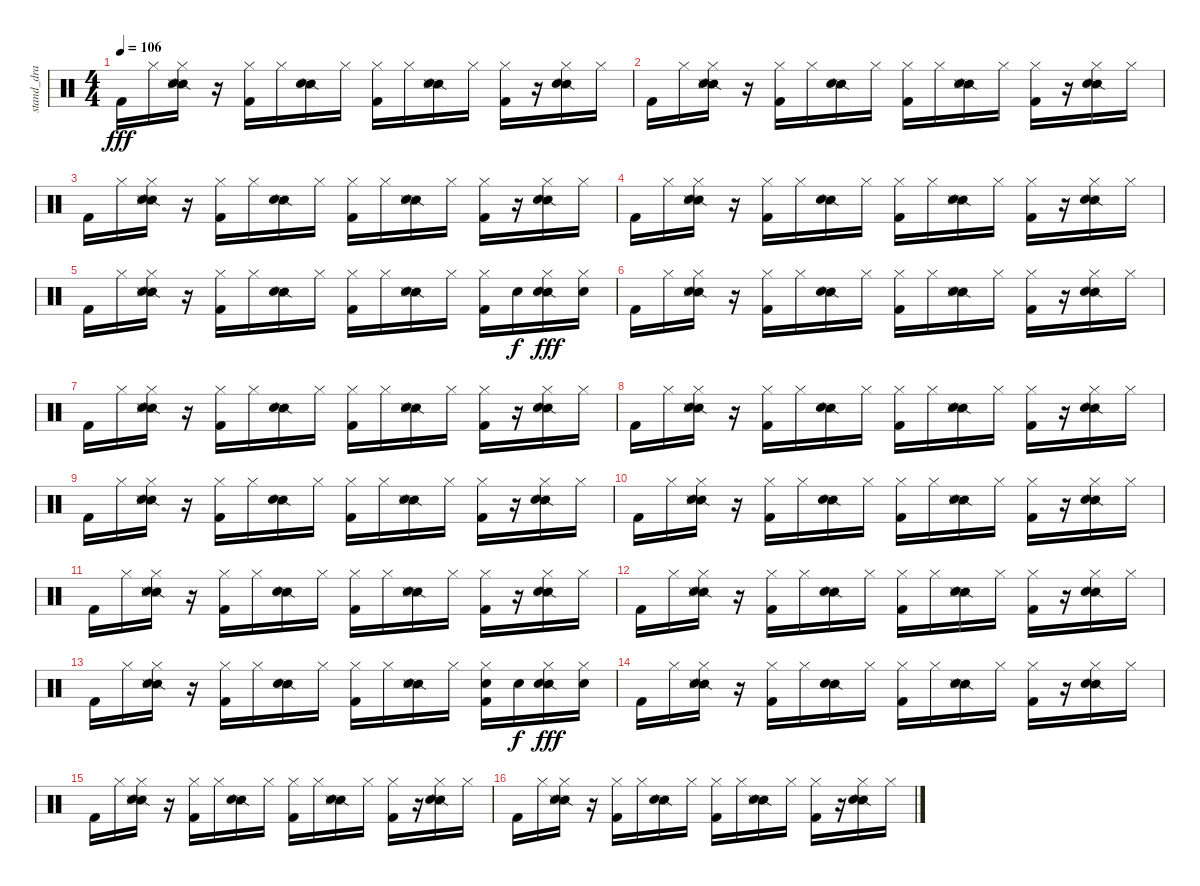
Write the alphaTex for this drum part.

\track ("stand_dra" "stand_dra") {instrument percussion}
\staff {score}
\articulation defaults
\ts (4 4)
\tempo 106
\clef neutral
\ks c "Kick (hit) 2".16{dy fff} "Hi-Hat (closed)".16
("Snare (side stick) 2" "Metronome (hit)" "Snare (hit) 2" "Hi-Hat (closed)").16 r.16 ("Kick (hit) 2" "Hi-Hat (closed)").16 "Hi-Hat (closed)".16 ("Snare (side stick) 2" "Snare (hit) 2").16 "Hi-Hat (closed)".16 ("Kick (hit) 2" "Hi-Hat (closed)").16 "Hi-Hat (closed)".16 ("Snare (side stick) 2" "Metronome (hit)" "Snare (hit) 2").16 "Hi-Hat (closed)".16 ("Kick (hit) 2" "Hi-Hat (closed)").16 r.16 ("Snare (side stick) 2" "Snare (hit) 2" "Hi-Hat (closed)").16 "Hi-Hat (closed)".16 |
"Kick (hit) 2".16 "Hi-Hat (closed)".16 ("Snare (side stick) 2" "Metronome (hit)" "Snare (hit) 2" "Hi-Hat (closed)").16 r.16 ("Kick (hit) 2" "Hi-Hat (closed)").16 "Hi-Hat (closed)".16 ("Snare (side stick) 2" "Snare (hit) 2").16 "Hi-Hat (closed)".16 ("Kick (hit) 2" "Hi-Hat (closed)").16 "Hi-Hat (closed)".16 ("Snare (side stick) 2" "Metronome (hit)" "Snare (hit) 2").16 "Hi-Hat (closed)".16 ("Kick (hit) 2" "Hi-Hat (closed)").16 r.16 ("Snare (side stick) 2" "Snare (hit) 2" "Hi-Hat (closed)").16 "Hi-Hat (closed)".16 |
"Kick (hit) 2".16 "Hi-Hat (closed)".16 ("Snare (side stick) 2" "Metronome (hit)" "Snare (hit) 2" "Hi-Hat (closed)").16 r.16 ("Kick (hit) 2" "Hi-Hat (closed)").16 "Hi-Hat (closed)".16 ("Snare (side stick) 2" "Snare (hit) 2").16 "Hi-Hat (closed)".16 ("Kick (hit) 2" "Hi-Hat (closed)").16 "Hi-Hat (closed)".16 ("Snare (side stick) 2" "Metronome (hit)" "Snare (hit) 2").16 "Hi-Hat (closed)".16 ("Kick (hit) 2" "Hi-Hat (closed)").16 r.16 ("Snare (side stick) 2" "Snare (hit) 2" "Hi-Hat (closed)").16 "Hi-Hat (closed)".16 |
"Kick (hit) 2".16 "Hi-Hat (closed)".16 ("Snare (side stick) 2" "Metronome (hit)" "Snare (hit) 2" "Hi-Hat (closed)").16 r.16 ("Kick (hit) 2" "Hi-Hat (closed)").16 "Hi-Hat (closed)".16 ("Snare (side stick) 2" "Snare (hit) 2").16 "Hi-Hat (closed)".16 ("Kick (hit) 2" "Hi-Hat (closed)").16 "Hi-Hat (closed)".16 ("Snare (side stick) 2" "Metronome (hit)" "Snare (hit) 2").16 "Hi-Hat (closed)".16 ("Kick (hit) 2" "Hi-Hat (closed)").16 r.16 ("Snare (side stick) 2" "Snare (hit) 2" "Hi-Hat (closed)").16 "Hi-Hat (closed)".16 |
"Kick (hit) 2".16 "Hi-Hat (closed)".16 ("Snare (side stick) 2" "Metronome (hit)" "Snare (hit) 2" "Hi-Hat (closed)").16 r.16 ("Kick (hit) 2" "Hi-Hat (closed)").16 "Hi-Hat (closed)".16 ("Snare (side stick) 2" "Snare (hit) 2").16 "Hi-Hat (closed)".16 ("Kick (hit) 2" "Hi-Hat (closed)").16 "Hi-Hat (closed)".16 ("Snare (side stick) 2" "Metronome (hit)" "Snare (hit) 2").16 "Hi-Hat (closed)".16 ("Kick (hit) 2" "Hi-Hat (closed)").16 "Snare (hit) 2".16{dy f} ("Snare (side stick) 2" "Snare (hit) 2" "Hi-Hat (closed)").16{dy fff} ("Snare (hit) 2" "Hi-Hat (closed)").16 |
"Kick (hit) 2".16 "Hi-Hat (closed)".16 ("Snare (side stick) 2" "Metronome (hit)" "Snare (hit) 2" "Hi-Hat (closed)").16 r.16 ("Kick (hit) 2" "Hi-Hat (closed)").16 "Hi-Hat (closed)".16 ("Snare (side stick) 2" "Snare (hit) 2").16 "Hi-Hat (closed)".16 ("Kick (hit) 2" "Hi-Hat (closed)").16 "Hi-Hat (closed)".16 ("Snare (side stick) 2" "Metronome (hit)" "Snare (hit) 2").16 "Hi-Hat (closed)".16 ("Kick (hit) 2" "Hi-Hat (closed)").16 r.16 ("Snare (side stick) 2" "Snare (hit) 2" "Hi-Hat (closed)").16 "Hi-Hat (closed)".16 |
"Kick (hit) 2".16 "Hi-Hat (closed)".16 ("Snare (side stick) 2" "Metronome (hit)" "Snare (hit) 2" "Hi-Hat (closed)").16 r.16 ("Kick (hit) 2" "Hi-Hat (closed)").16 "Hi-Hat (closed)".16 ("Snare (side stick) 2" "Snare (hit) 2").16 "Hi-Hat (closed)".16 ("Kick (hit) 2" "Hi-Hat (closed)").16 "Hi-Hat (closed)".16 ("Snare (side stick) 2" "Metronome (hit)" "Snare (hit) 2").16 "Hi-Hat (closed)".16 ("Kick (hit) 2" "Hi-Hat (closed)").16 r.16 ("Snare (side stick) 2" "Snare (hit) 2" "Hi-Hat (closed)").16 "Hi-Hat (closed)".16 |
"Kick (hit) 2".16 "Hi-Hat (closed)".16 ("Snare (side stick) 2" "Metronome (hit)" "Snare (hit) 2" "Hi-Hat (closed)").16 r.16 ("Kick (hit) 2" "Hi-Hat (closed)").16 "Hi-Hat (closed)".16 ("Snare (side stick) 2" "Snare (hit) 2").16 "Hi-Hat (closed)".16 ("Kick (hit) 2" "Hi-Hat (closed)").16 "Hi-Hat (closed)".16 ("Snare (side stick) 2" "Metronome (hit)" "Snare (hit) 2").16 "Hi-Hat (closed)".16 ("Kick (hit) 2" "Hi-Hat (closed)").16 r.16 ("Snare (side stick) 2" "Snare (hit) 2" "Hi-Hat (closed)").16 "Hi-Hat (closed)".16 |
"Kick (hit) 2".16 "Hi-Hat (closed)".16 ("Snare (side stick) 2" "Metronome (hit)" "Snare (hit) 2" "Hi-Hat (closed)").16 r.16 ("Kick (hit) 2" "Hi-Hat (closed)").16 "Hi-Hat (closed)".16 ("Snare (side stick) 2" "Snare (hit) 2").16 "Hi-Hat (closed)".16 ("Kick (hit) 2" "Hi-Hat (closed)").16 "Hi-Hat (closed)".16 ("Snare (side stick) 2" "Metronome (hit)" "Snare (hit) 2").16 "Hi-Hat (closed)".16 ("Kick (hit) 2" "Hi-Hat (closed)").16 r.16 ("Snare (side stick) 2" "Snare (hit) 2" "Hi-Hat (closed)").16 "Hi-Hat (closed)".16 |
"Kick (hit) 2".16 "Hi-Hat (closed)".16 ("Snare (side stick) 2" "Metronome (hit)" "Snare (hit) 2" "Hi-Hat (closed)").16 r.16 ("Kick (hit) 2" "Hi-Hat (closed)").16 "Hi-Hat (closed)".16 ("Snare (side stick) 2" "Snare (hit) 2").16 "Hi-Hat (closed)".16 ("Kick (hit) 2" "Hi-Hat (closed)").16 "Hi-Hat (closed)".16 ("Snare (side stick) 2" "Metronome (hit)" "Snare (hit) 2").16 "Hi-Hat (closed)".16 ("Kick (hit) 2" "Hi-Hat (closed)").16 r.16 ("Snare (side stick) 2" "Snare (hit) 2" "Hi-Hat (closed)").16 "Hi-Hat (closed)".16 |
"Kick (hit) 2".16 "Hi-Hat (closed)".16 ("Snare (side stick) 2" "Metronome (hit)" "Snare (hit) 2" "Hi-Hat (closed)").16 r.16 ("Kick (hit) 2" "Hi-Hat (closed)").16 "Hi-Hat (closed)".16 ("Snare (side stick) 2" "Snare (hit) 2").16 "Hi-Hat (closed)".16 ("Kick (hit) 2" "Hi-Hat (closed)").16 "Hi-Hat (closed)".16 ("Snare (side stick) 2" "Metronome (hit)" "Snare (hit) 2").16 "Hi-Hat (closed)".16 ("Kick (hit) 2" "Hi-Hat (closed)").16 r.16 ("Snare (side stick) 2" "Snare (hit) 2" "Hi-Hat (closed)").16 "Hi-Hat (closed)".16 |
"Kick (hit) 2".16 "Hi-Hat (closed)".16 ("Snare (side stick) 2" "Metronome (hit)" "Snare (hit) 2" "Hi-Hat (closed)").16 r.16 ("Kick (hit) 2" "Hi-Hat (closed)").16 "Hi-Hat (closed)".16 ("Snare (side stick) 2" "Snare (hit) 2").16 "Hi-Hat (closed)".16 ("Kick (hit) 2" "Hi-Hat (closed)").16 "Hi-Hat (closed)".16 ("Snare (side stick) 2" "Metronome (hit)" "Snare (hit) 2").16 "Hi-Hat (closed)".16 ("Kick (hit) 2" "Hi-Hat (closed)").16 r.16 ("Snare (side stick) 2" "Snare (hit) 2" "Hi-Hat (closed)").16 "Hi-Hat (closed)".16 |
"Kick (hit) 2".16 "Hi-Hat (closed)".16 ("Snare (side stick) 2" "Metronome (hit)" "Snare (hit) 2" "Hi-Hat (closed)").16 r.16 ("Kick (hit) 2" "Hi-Hat (closed)").16 "Hi-Hat (closed)".16 ("Snare (side stick) 2" "Snare (hit) 2").16 "Hi-Hat (closed)".16 ("Kick (hit) 2" "Hi-Hat (closed)").16 "Hi-Hat (closed)".16 ("Snare (side stick) 2" "Metronome (hit)" "Snare (hit) 2").16 "Hi-Hat (closed)".16 ("Kick (hit) 2" "Snare (hit) 2" "Hi-Hat (closed)").16 "Snare (hit) 2".16{dy f} ("Snare (side stick) 2" "Snare (hit) 2" "Hi-Hat (closed)").16{dy fff} ("Snare (hit) 2" "Hi-Hat (closed)").16 |
"Kick (hit) 2".16 "Hi-Hat (closed)".16 ("Snare (side stick) 2" "Metronome (hit)" "Snare (hit) 2" "Hi-Hat (closed)").16 r.16 ("Kick (hit) 2" "Hi-Hat (closed)").16 "Hi-Hat (closed)".16 ("Snare (side stick) 2" "Snare (hit) 2").16 "Hi-Hat (closed)".16 ("Kick (hit) 2" "Hi-Hat (closed)").16 "Hi-Hat (closed)".16 ("Snare (side stick) 2" "Metronome (hit)" "Snare (hit) 2").16 "Hi-Hat (closed)".16 ("Kick (hit) 2" "Hi-Hat (closed)").16 r.16 ("Snare (side stick) 2" "Snare (hit) 2" "Hi-Hat (closed)").16 "Hi-Hat (closed)".16 |
"Kick (hit) 2".16 "Hi-Hat (closed)".16 ("Snare (side stick) 2" "Metronome (hit)" "Snare (hit) 2" "Hi-Hat (closed)").16 r.16 ("Kick (hit) 2" "Hi-Hat (closed)").16 "Hi-Hat (closed)".16 ("Snare (side stick) 2" "Snare (hit) 2").16 "Hi-Hat (closed)".16 ("Kick (hit) 2" "Hi-Hat (closed)").16 "Hi-Hat (closed)".16 ("Snare (side stick) 2" "Metronome (hit)" "Snare (hit) 2").16 "Hi-Hat (closed)".16 ("Kick (hit) 2" "Hi-Hat (closed)").16 r.16 ("Snare (side stick) 2" "Snare (hit) 2" "Hi-Hat (closed)").16 "Hi-Hat (closed)".16 |
"Kick (hit) 2".16 "Hi-Hat (closed)".16 ("Snare (side stick) 2" "Metronome (hit)" "Snare (hit) 2" "Hi-Hat (closed)").16 r.16 ("Kick (hit) 2" "Hi-Hat (closed)").16 "Hi-Hat (closed)".16 ("Snare (side stick) 2" "Snare (hit) 2").16 "Hi-Hat (closed)".16 ("Kick (hit) 2" "Hi-Hat (closed)").16 "Hi-Hat (closed)".16 ("Snare (side stick) 2" "Metronome (hit)" "Snare (hit) 2").16 "Hi-Hat (closed)".16 ("Kick (hit) 2" "Hi-Hat (closed)").16 r.16 ("Snare (side stick) 2" "Snare (hit) 2" "Hi-Hat (closed)").16 "Hi-Hat (closed)".16
